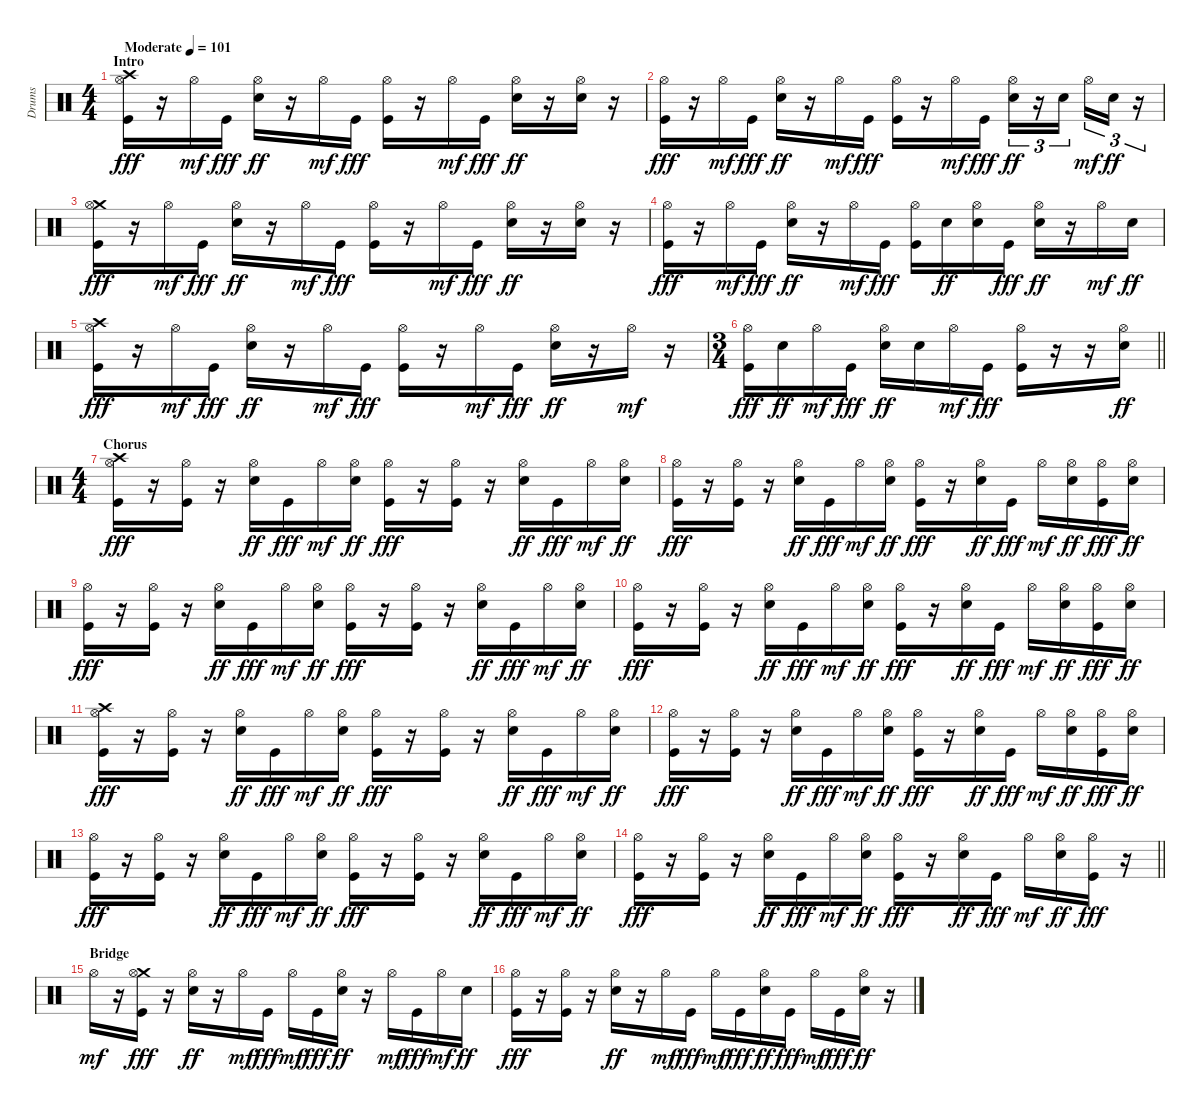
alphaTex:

\track ("Drums" "Drums") {instrument percussion}
\staff {score}
\articulation defaults
\ts (4 4)
\section ("" "Intro")
\tempo (101 "Moderate")
\clef neutral
\ks c
("Crash high (hit)" "Hi-Hat (open)" "Kick (hit)").16{dy fff} r.16 "Hi-Hat (open)".16{dy mf} "Kick (hit)".16{dy fff} ("Hi-Hat (open)" "Electric Snare (hit)").16{dy ff} r.16 "Hi-Hat (open)".16{dy mf} "Kick (hit)".16{dy fff} ("Hi-Hat (open)" "Kick (hit)").16 r.16 "Hi-Hat (open)".16{dy mf} "Kick (hit)".16{dy fff} ("Hi-Hat (open)" "Electric Snare (hit)").16{dy ff} r.16 ("Hi-Hat (open)" "Electric Snare (hit)").16 r.16 |
("Hi-Hat (open)" "Kick (hit)").16{dy fff} r.16 "Hi-Hat (open)".16{dy mf} "Kick (hit)".16{dy fff} ("Hi-Hat (open)" "Electric Snare (hit)").16{dy ff} r.16 "Hi-Hat (open)".16{dy mf} "Kick (hit)".16{dy fff} ("Hi-Hat (open)" "Kick (hit)").16 r.16 "Hi-Hat (open)".16{dy mf} "Kick (hit)".16{dy fff} ("Hi-Hat (open)" "Electric Snare (hit)").16{tu (3 2) dy ff} r.16{tu (3 2)} "Electric Snare (hit)".16{tu (3 2) beam splitsecondary} "Hi-Hat (open)".16{tu (3 2) dy mf} "Electric Snare (hit)".16{tu (3 2) dy ff} r.16{tu (3 2)} |
("Crash medium (hit)" "Hi-Hat (open)" "Kick (hit)").16{dy fff} r.16 "Hi-Hat (open)".16{dy mf} "Kick (hit)".16{dy fff} ("Hi-Hat (open)" "Electric Snare (hit)").16{dy ff} r.16 "Hi-Hat (open)".16{dy mf} "Kick (hit)".16{dy fff} ("Hi-Hat (open)" "Kick (hit)").16 r.16 "Hi-Hat (open)".16{dy mf} "Kick (hit)".16{dy fff} ("Hi-Hat (open)" "Electric Snare (hit)").16{dy ff} r.16 ("Hi-Hat (open)" "Electric Snare (hit)").16 r.16 |
("Hi-Hat (open)" "Kick (hit)").16{dy fff} r.16 "Hi-Hat (open)".16{dy mf} "Kick (hit)".16{dy fff} ("Hi-Hat (open)" "Electric Snare (hit)").16{dy ff} r.16 "Hi-Hat (open)".16{dy mf} "Kick (hit)".16{dy fff} ("Hi-Hat (open)" "Kick (hit)").16 "Electric Snare (hit)".16{dy ff} ("Hi-Hat (open)" "Electric Snare (hit)").16 "Kick (hit)".16{dy fff} ("Hi-Hat (open)" "Electric Snare (hit)").16{dy ff} r.16 "Hi-Hat (open)".16{dy mf} "Electric Snare (hit)".16{dy ff} |
("Crash high (hit)" "Hi-Hat (open)" "Kick (hit)").16{dy fff} r.16 "Hi-Hat (open)".16{dy mf} "Kick (hit)".16{dy fff} ("Hi-Hat (open)" "Electric Snare (hit)").16{dy ff} r.16 "Hi-Hat (open)".16{dy mf} "Kick (hit)".16{dy fff} ("Hi-Hat (open)" "Kick (hit)").16 r.16 "Hi-Hat (open)".16{dy mf} "Kick (hit)".16{dy fff} ("Hi-Hat (open)" "Electric Snare (hit)").16{dy ff} r.16 "Hi-Hat (open)".16{dy mf} r.16 |
\ts (3 4)
\barLineRight lightlight
("Hi-Hat (open)" "Kick (hit)").16{dy fff} "Electric Snare (hit)".16{dy ff} "Hi-Hat (open)".16{dy mf} "Kick (hit)".16{dy fff} ("Hi-Hat (open)" "Electric Snare (hit)").16{dy ff} "Electric Snare (hit)".16 "Hi-Hat (open)".16{dy mf} "Kick (hit)".16{dy fff} ("Hi-Hat (open)" "Kick (hit)").16 r.16 r.16 ("Hi-Hat (open)" "Electric Snare (hit)").16{dy ff} |
\ts (4 4)
\section ("" "Chorus")
("Crash high (hit)" "Hi-Hat (open)" "Kick (hit)").16{dy fff} r.16 ("Hi-Hat (open)" "Kick (hit)").16 r.16 ("Hi-Hat (open)" "Electric Snare (hit)").16{dy ff} "Kick (hit)".16{dy fff} "Hi-Hat (open)".16{dy mf} ("Hi-Hat (open)" "Electric Snare (hit)").16{dy ff} ("Hi-Hat (open)" "Kick (hit)").16{dy fff} r.16 ("Hi-Hat (open)" "Kick (hit)").16 r.16 ("Hi-Hat (open)" "Electric Snare (hit)").16{dy ff} "Kick (hit)".16{dy fff} "Hi-Hat (open)".16{dy mf} ("Hi-Hat (open)" "Electric Snare (hit)").16{dy ff} |
("Hi-Hat (open)" "Kick (hit)").16{dy fff} r.16 ("Hi-Hat (open)" "Kick (hit)").16 r.16 ("Hi-Hat (open)" "Electric Snare (hit)").16{dy ff} "Kick (hit)".16{dy fff} "Hi-Hat (open)".16{dy mf} ("Hi-Hat (open)" "Electric Snare (hit)").16{dy ff} ("Hi-Hat (open)" "Kick (hit)").16{dy fff} r.16 ("Hi-Hat (open)" "Electric Snare (hit)").16{dy ff} "Kick (hit)".16{dy fff} "Hi-Hat (open)".16{dy mf} ("Hi-Hat (open)" "Electric Snare (hit)").16{dy ff} ("Hi-Hat (open)" "Kick (hit)").16{dy fff} ("Hi-Hat (open)" "Electric Snare (hit)").16{dy ff} |
("Hi-Hat (open)" "Kick (hit)").16{dy fff} r.16 ("Hi-Hat (open)" "Kick (hit)").16 r.16 ("Hi-Hat (open)" "Electric Snare (hit)").16{dy ff} "Kick (hit)".16{dy fff} "Hi-Hat (open)".16{dy mf} ("Hi-Hat (open)" "Electric Snare (hit)").16{dy ff} ("Hi-Hat (open)" "Kick (hit)").16{dy fff} r.16 ("Hi-Hat (open)" "Kick (hit)").16 r.16 ("Hi-Hat (open)" "Electric Snare (hit)").16{dy ff} "Kick (hit)".16{dy fff} "Hi-Hat (open)".16{dy mf} ("Hi-Hat (open)" "Electric Snare (hit)").16{dy ff} |
("Hi-Hat (open)" "Kick (hit)").16{dy fff} r.16 ("Hi-Hat (open)" "Kick (hit)").16 r.16 ("Hi-Hat (open)" "Electric Snare (hit)").16{dy ff} "Kick (hit)".16{dy fff} "Hi-Hat (open)".16{dy mf} ("Hi-Hat (open)" "Electric Snare (hit)").16{dy ff} ("Hi-Hat (open)" "Kick (hit)").16{dy fff} r.16 ("Hi-Hat (open)" "Electric Snare (hit)").16{dy ff} "Kick (hit)".16{dy fff} "Hi-Hat (open)".16{dy mf} ("Hi-Hat (open)" "Electric Snare (hit)").16{dy ff} ("Hi-Hat (open)" "Kick (hit)").16{dy fff} ("Hi-Hat (open)" "Electric Snare (hit)").16{dy ff} |
("Crash high (hit)" "Hi-Hat (open)" "Kick (hit)").16{dy fff} r.16 ("Hi-Hat (open)" "Kick (hit)").16 r.16 ("Hi-Hat (open)" "Electric Snare (hit)").16{dy ff} "Kick (hit)".16{dy fff} "Hi-Hat (open)".16{dy mf} ("Hi-Hat (open)" "Electric Snare (hit)").16{dy ff} ("Hi-Hat (open)" "Kick (hit)").16{dy fff} r.16 ("Hi-Hat (open)" "Kick (hit)").16 r.16 ("Hi-Hat (open)" "Electric Snare (hit)").16{dy ff} "Kick (hit)".16{dy fff} "Hi-Hat (open)".16{dy mf} ("Hi-Hat (open)" "Electric Snare (hit)").16{dy ff} |
("Hi-Hat (open)" "Kick (hit)").16{dy fff} r.16 ("Hi-Hat (open)" "Kick (hit)").16 r.16 ("Hi-Hat (open)" "Electric Snare (hit)").16{dy ff} "Kick (hit)".16{dy fff} "Hi-Hat (open)".16{dy mf} ("Hi-Hat (open)" "Electric Snare (hit)").16{dy ff} ("Hi-Hat (open)" "Kick (hit)").16{dy fff} r.16 ("Hi-Hat (open)" "Electric Snare (hit)").16{dy ff} "Kick (hit)".16{dy fff} "Hi-Hat (open)".16{dy mf} ("Hi-Hat (open)" "Electric Snare (hit)").16{dy ff} ("Hi-Hat (open)" "Kick (hit)").16{dy fff} ("Hi-Hat (open)" "Electric Snare (hit)").16{dy ff} |
("Hi-Hat (open)" "Kick (hit)").16{dy fff} r.16 ("Hi-Hat (open)" "Kick (hit)").16 r.16 ("Hi-Hat (open)" "Electric Snare (hit)").16{dy ff} "Kick (hit)".16{dy fff} "Hi-Hat (open)".16{dy mf} ("Hi-Hat (open)" "Electric Snare (hit)").16{dy ff} ("Hi-Hat (open)" "Kick (hit)").16{dy fff} r.16 ("Hi-Hat (open)" "Kick (hit)").16 r.16 ("Hi-Hat (open)" "Electric Snare (hit)").16{dy ff} "Kick (hit)".16{dy fff} "Hi-Hat (open)".16{dy mf} ("Hi-Hat (open)" "Electric Snare (hit)").16{dy ff} |
\barLineRight lightlight
("Hi-Hat (open)" "Kick (hit)").16{dy fff} r.16 ("Hi-Hat (open)" "Kick (hit)").16 r.16 ("Hi-Hat (open)" "Electric Snare (hit)").16{dy ff} "Kick (hit)".16{dy fff} "Hi-Hat (open)".16{dy mf} ("Hi-Hat (open)" "Electric Snare (hit)").16{dy ff} ("Hi-Hat (open)" "Kick (hit)").16{dy fff} r.16 ("Hi-Hat (open)" "Electric Snare (hit)").16{dy ff} "Kick (hit)".16{dy fff} "Hi-Hat (open)".16{dy mf} ("Hi-Hat (open)" "Electric Snare (hit)").16{dy ff} ("Hi-Hat (open)" "Kick (hit)").16{dy fff} r.16 |
\section ("" "Bridge")
"Hi-Hat (open)".16{dy mf} r.16 ("Crash medium (hit)" "Hi-Hat (open)" "Kick (hit)").16{dy fff} r.16 ("Hi-Hat (open)" "Electric Snare (hit)").16{dy ff} r.16 "Hi-Hat (open)".16{dy mf} "Kick (hit)".16{dy fff} "Hi-Hat (open)".16{dy mf} "Kick (hit)".16{dy fff} ("Hi-Hat (open)" "Electric Snare (hit)").16{dy ff} r.16 "Hi-Hat (open)".16{dy mf} "Kick (hit)".16{dy fff} "Hi-Hat (open)".16{dy mf} "Electric Snare (hit)".16{dy ff} |
("Hi-Hat (open)" "Kick (hit)").16{dy fff} r.16 ("Hi-Hat (open)" "Kick (hit)").16 r.16 ("Hi-Hat (open)" "Electric Snare (hit)").16{dy ff} r.16 "Hi-Hat (open)".16{dy mf} "Kick (hit)".16{dy fff} "Hi-Hat (open)".16{dy mf} "Kick (hit)".16{dy fff} ("Hi-Hat (open)" "Electric Snare (hit)").16{dy ff} "Kick (hit)".16{dy fff} "Hi-Hat (open)".16{dy mf} "Kick (hit)".16{dy fff} ("Hi-Hat (open)" "Electric Snare (hit)").16{dy ff} r.16
